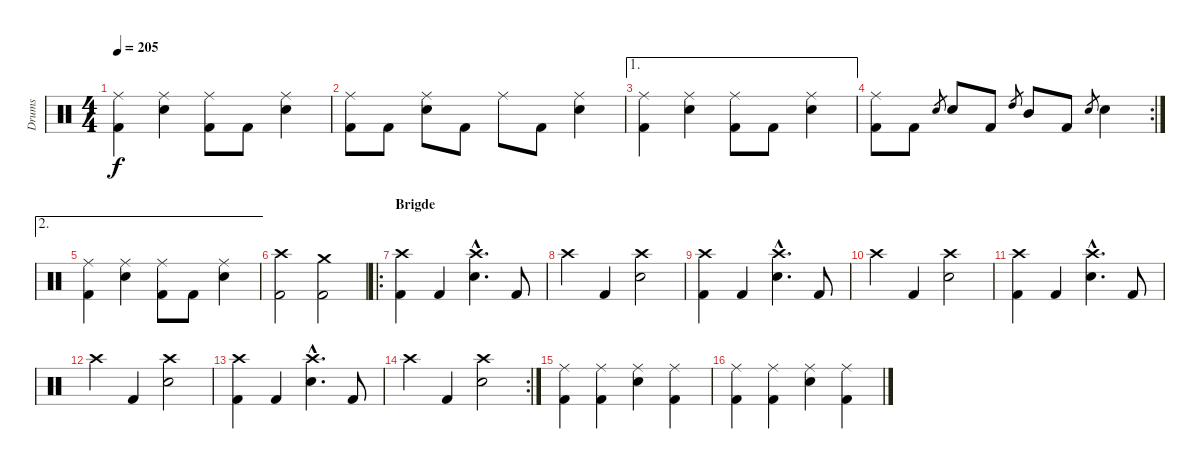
\track ("Drums" "Drums") {instrument percussion}
\staff {score}
\articulation defaults
\ts (4 4)
\tempo 205
\clef neutral
\ks c
("Ride (middle)" "Kick (hit) 2").4{dy f} ("Ride (middle)" "Electric Snare (hit)").4 ("Ride (middle)" "Kick (hit) 2").8 "Kick (hit) 2".8 ("Ride (middle)" "Electric Snare (hit)").4 |
("Ride (middle)" "Kick (hit) 2").8 "Kick (hit) 2".8 ("Ride (middle)" "Electric Snare (hit)").8 "Kick (hit) 2".8 "Ride (middle)".8 "Kick (hit) 2".8 ("Ride (middle)" "Electric Snare (hit)").4 |
\ae 1
("Ride (middle)" "Kick (hit) 2").4 ("Ride (middle)" "Electric Snare (hit)").4 ("Ride (middle)" "Kick (hit) 2").8 "Kick (hit) 2".8 ("Ride (middle)" "Electric Snare (hit)").4 |
\rc 2
("Ride (middle)" "Kick (hit) 2").8 "Kick (hit) 2".8 "Electric Snare (hit)".8{gr} "Electric Snare (hit)".8 "Kick (hit) 2".8 "High Tom (hit)".8{gr} "Mid Tom (hit)".8 "Kick (hit) 2".8 "Electric Snare (hit)".8{gr} "Electric Snare (hit)".4 |
\ae 2
("Ride (middle)" "Kick (hit) 2").4 ("Ride (middle)" "Electric Snare (hit)").4 ("Ride (middle)" "Kick (hit) 2").8 "Kick (hit) 2".8 ("Ride (middle)" "Electric Snare (hit)").4 |
("Crash high (hit)" "Kick (hit) 2").2 ("Crash medium (hit)" "Kick (hit) 2").2 |
\ro
\section ("" "Brigde")
("Crash high (hit)" "Kick (hit) 2").4 "Kick (hit) 2".4 ("Crash high (hit)"{hac} "Electric Snare (hit)"{hac}).4{d} "Kick (hit) 2".8 |
"Crash high (hit)".4 "Kick (hit) 2".4 ("Crash high (hit)" "Electric Snare (hit)").2 |
("Crash high (hit)" "Kick (hit) 2").4 "Kick (hit) 2".4 ("Crash high (hit)"{hac} "Electric Snare (hit)"{hac}).4{d} "Kick (hit) 2".8 |
"Crash high (hit)".4 "Kick (hit) 2".4 ("Crash high (hit)" "Electric Snare (hit)").2 |
("Crash high (hit)" "Kick (hit) 2").4 "Kick (hit) 2".4 ("Crash high (hit)"{hac} "Electric Snare (hit)"{hac}).4{d} "Kick (hit) 2".8 |
"Crash high (hit)".4 "Kick (hit) 2".4 ("Crash high (hit)" "Electric Snare (hit)").2 |
("Crash high (hit)" "Kick (hit) 2").4 "Kick (hit) 2".4 ("Crash high (hit)"{hac} "Electric Snare (hit)"{hac}).4{d} "Kick (hit) 2".8 |
\rc 2 "Crash high (hit)".4 "Kick (hit) 2".4
("Crash high (hit)" "Electric Snare (hit)").2 |
("Ride (middle)" "Kick (hit) 2").4 ("Ride (middle)" "Kick (hit) 2").4 ("Ride (middle)" "Electric Snare (hit)").4 ("Ride (middle)" "Kick (hit) 2").4 |
("Ride (middle)" "Kick (hit) 2").4 ("Ride (middle)" "Kick (hit) 2").4 ("Ride (middle)" "Electric Snare (hit)").4 ("Ride (middle)" "Kick (hit) 2").4
